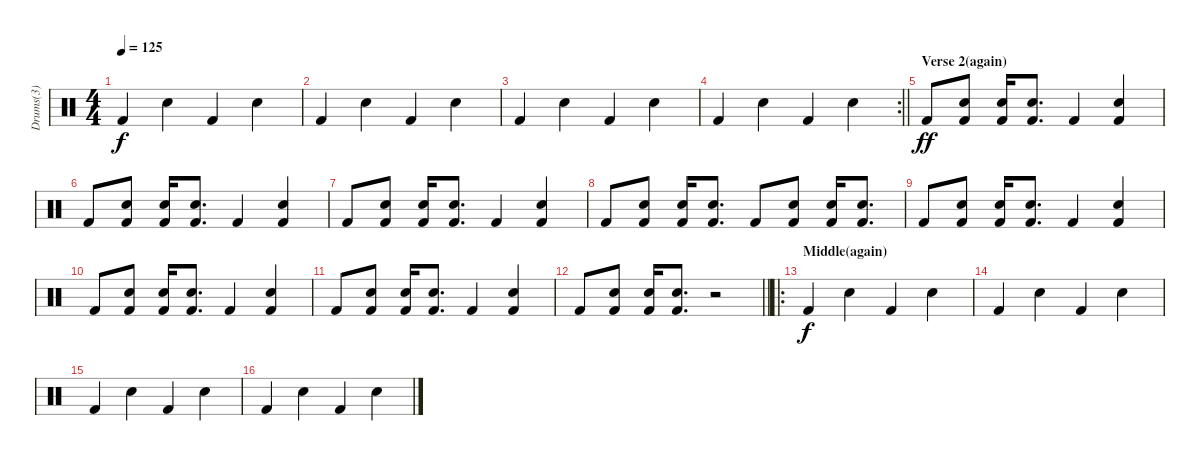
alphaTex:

\track ("Drums(3)" "Drums(3)") {instrument percussion}
\staff {score}
\articulation defaults
\ts (4 4)
\tempo 125
\clef neutral
\ks c "Kick (hit) 2".4{dy f} "Electric Snare (hit)".4 "Kick (hit) 2".4 "Electric Snare (hit)".4
|
"Kick (hit) 2".4 "Electric Snare (hit)".4 "Kick (hit) 2".4 "Electric Snare (hit)".4 |
"Kick (hit) 2".4 "Electric Snare (hit)".4 "Kick (hit) 2".4 "Electric Snare (hit)".4 |
\rc 2
\barLineRight lightlight "Kick (hit) 2".4 "Electric Snare (hit)".4 "Kick (hit) 2".4 "Electric Snare (hit)".4
|
\section ("" "Verse 2(again)")
"Kick (hit) 2".8{dy ff} ("Snare (hit) 2" "Kick (hit) 2").8 ("Snare (hit) 2" "Kick (hit) 2").16 ("Electric Snare (hit)" "Kick (hit) 2").8{d} "Kick (hit) 2".4 ("Electric Snare (hit)" "Kick (hit) 2").4 |
"Kick (hit) 2".8 ("Snare (hit) 2" "Kick (hit) 2").8 ("Snare (hit) 2" "Kick (hit) 2").16 ("Electric Snare (hit)" "Kick (hit) 2").8{d} "Kick (hit) 2".4 ("Electric Snare (hit)" "Kick (hit) 2").4 |
"Kick (hit) 2".8 ("Snare (hit) 2" "Kick (hit) 2").8 ("Snare (hit) 2" "Kick (hit) 2").16 ("Electric Snare (hit)" "Kick (hit) 2").8{d} "Kick (hit) 2".4 ("Electric Snare (hit)" "Kick (hit) 2").4 |
"Kick (hit) 2".8 ("Snare (hit) 2" "Kick (hit) 2").8 ("Snare (hit) 2" "Kick (hit) 2").16 ("Electric Snare (hit)" "Kick (hit) 2").8{d} "Kick (hit) 2".8 ("Snare (hit) 2" "Kick (hit) 2").8 ("Snare (hit) 2" "Kick (hit) 2").16 ("Electric Snare (hit)" "Kick (hit) 2").8{d} |
"Kick (hit) 2".8 ("Snare (hit) 2" "Kick (hit) 2").8 ("Snare (hit) 2" "Kick (hit) 2").16 ("Electric Snare (hit)" "Kick (hit) 2").8{d} "Kick (hit) 2".4 ("Electric Snare (hit)" "Kick (hit) 2").4 |
"Kick (hit) 2".8 ("Snare (hit) 2" "Kick (hit) 2").8 ("Snare (hit) 2" "Kick (hit) 2").16 ("Electric Snare (hit)" "Kick (hit) 2").8{d} "Kick (hit) 2".4 ("Electric Snare (hit)" "Kick (hit) 2").4 |
"Kick (hit) 2".8 ("Snare (hit) 2" "Kick (hit) 2").8 ("Snare (hit) 2" "Kick (hit) 2").16 ("Electric Snare (hit)" "Kick (hit) 2").8{d} "Kick (hit) 2".4 ("Electric Snare (hit)" "Kick (hit) 2").4 |
\barLineRight lightlight "Kick (hit) 2".8
("Snare (hit) 2" "Kick (hit) 2").8 ("Snare (hit) 2" "Kick (hit) 2").16 ("Electric Snare (hit)" "Kick (hit) 2").8{d} r.2 |
\ro
\section ("" "Middle(again)")
"Kick (hit) 2".4{dy f volume 16} "Electric Snare (hit)".4 "Kick (hit) 2".4 "Electric Snare (hit)".4 |
"Kick (hit) 2".4 "Electric Snare (hit)".4 "Kick (hit) 2".4 "Electric Snare (hit)".4 |
"Kick (hit) 2".4 "Electric Snare (hit)".4 "Kick (hit) 2".4 "Electric Snare (hit)".4 |
"Kick (hit) 2".4 "Electric Snare (hit)".4 "Kick (hit) 2".4 "Electric Snare (hit)".4
